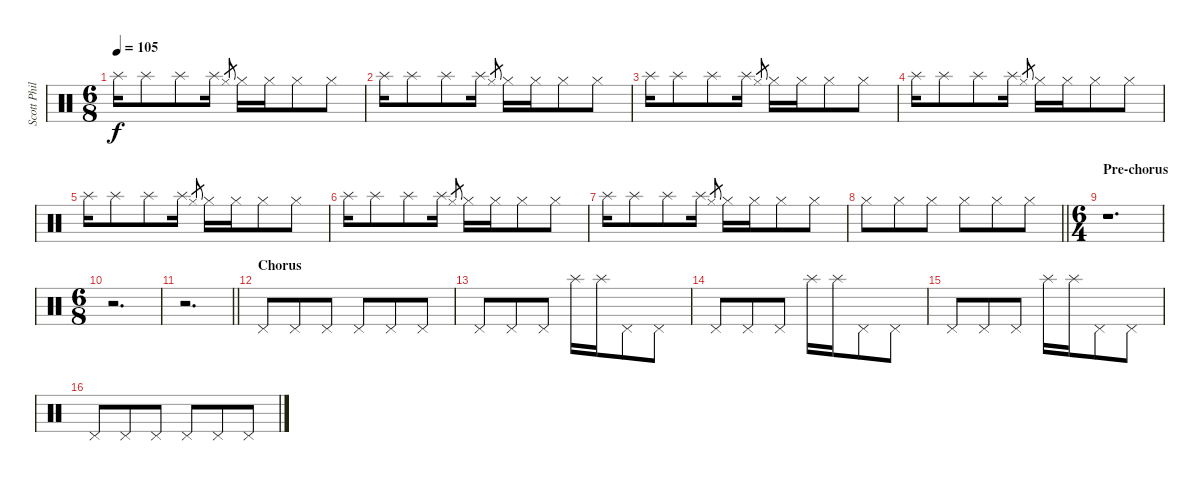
\track ("Scott Phillips (Drums)" "Scott Phil") {instrument percussion}
\staff {score}
\articulation defaults
\ts (6 8)
\tempo 105
\clef neutral
\ks c "Splash (hit)".16{dy f} "Splash (hit)".8 "Splash (hit)".8 "Splash (hit)".16 "Hi-Hat (closed)".8{gr} "Hi-Hat (closed)".16 "Hi-Hat (closed)".16 "Hi-Hat (closed)".8 "Hi-Hat (closed)".8
|
"Splash (hit)".16 "Splash (hit)".8 "Splash (hit)".8 "Splash (hit)".16 "Hi-Hat (closed)".8{gr} "Hi-Hat (closed)".16 "Hi-Hat (closed)".16 "Hi-Hat (closed)".8 "Hi-Hat (closed)".8 |
"Splash (hit)".16 "Splash (hit)".8 "Splash (hit)".8 "Splash (hit)".16 "Hi-Hat (closed)".8{gr} "Hi-Hat (closed)".16 "Hi-Hat (closed)".16 "Hi-Hat (closed)".8 "Hi-Hat (closed)".8 |
"Splash (hit)".16 "Splash (hit)".8 "Splash (hit)".8 "Splash (hit)".16 "Hi-Hat (closed)".8{gr} "Hi-Hat (closed)".16 "Hi-Hat (closed)".16 "Hi-Hat (closed)".8 "Hi-Hat (closed)".8 |
"Splash (hit)".16 "Splash (hit)".8 "Splash (hit)".8 "Splash (hit)".16 "Hi-Hat (closed)".8{gr} "Hi-Hat (closed)".16 "Hi-Hat (closed)".16 "Hi-Hat (closed)".8 "Hi-Hat (closed)".8 |
"Splash (hit)".16 "Splash (hit)".8 "Splash (hit)".8 "Splash (hit)".16 "Hi-Hat (closed)".8{gr} "Hi-Hat (closed)".16 "Hi-Hat (closed)".16 "Hi-Hat (closed)".8 "Hi-Hat (closed)".8 |
"Splash (hit)".16 "Splash (hit)".8 "Splash (hit)".8 "Splash (hit)".16 "Hi-Hat (closed)".8{gr} "Hi-Hat (closed)".16 "Hi-Hat (closed)".16 "Hi-Hat (closed)".8 "Hi-Hat (closed)".8 |
\barLineRight lightlight "Hi-Hat (closed)".8 "Hi-Hat (closed)".8 "Hi-Hat (closed)".8 "Hi-Hat (closed)".8 "Hi-Hat (closed)".8 "Hi-Hat (closed)".8
|
\ts (6 4)
\section ("" "Pre-chorus")
r.1{d} |
\ts (6 8)
r.2{d} |
\barLineRight lightlight
r.2{d} |
\section ("" "Chorus")
"Pedal Hi-Hat (hit)".8 "Pedal Hi-Hat (hit)".8 "Pedal Hi-Hat (hit)".8 "Pedal Hi-Hat (hit)".8 "Pedal Hi-Hat (hit)".8 "Pedal Hi-Hat (hit)".8 |
"Pedal Hi-Hat (hit)".8 "Pedal Hi-Hat (hit)".8 "Pedal Hi-Hat (hit)".8 "Splash (hit)".16 "Splash (hit)".16 "Pedal Hi-Hat (hit)".8 "Pedal Hi-Hat (hit)".8 |
"Pedal Hi-Hat (hit)".8 "Pedal Hi-Hat (hit)".8 "Pedal Hi-Hat (hit)".8 "Splash (hit)".16 "Splash (hit)".16 "Pedal Hi-Hat (hit)".8 "Pedal Hi-Hat (hit)".8 |
"Pedal Hi-Hat (hit)".8 "Pedal Hi-Hat (hit)".8 "Pedal Hi-Hat (hit)".8 "Splash (hit)".16 "Splash (hit)".16 "Pedal Hi-Hat (hit)".8 "Pedal Hi-Hat (hit)".8 |
"Pedal Hi-Hat (hit)".8 "Pedal Hi-Hat (hit)".8 "Pedal Hi-Hat (hit)".8 "Pedal Hi-Hat (hit)".8 "Pedal Hi-Hat (hit)".8 "Pedal Hi-Hat (hit)".8
